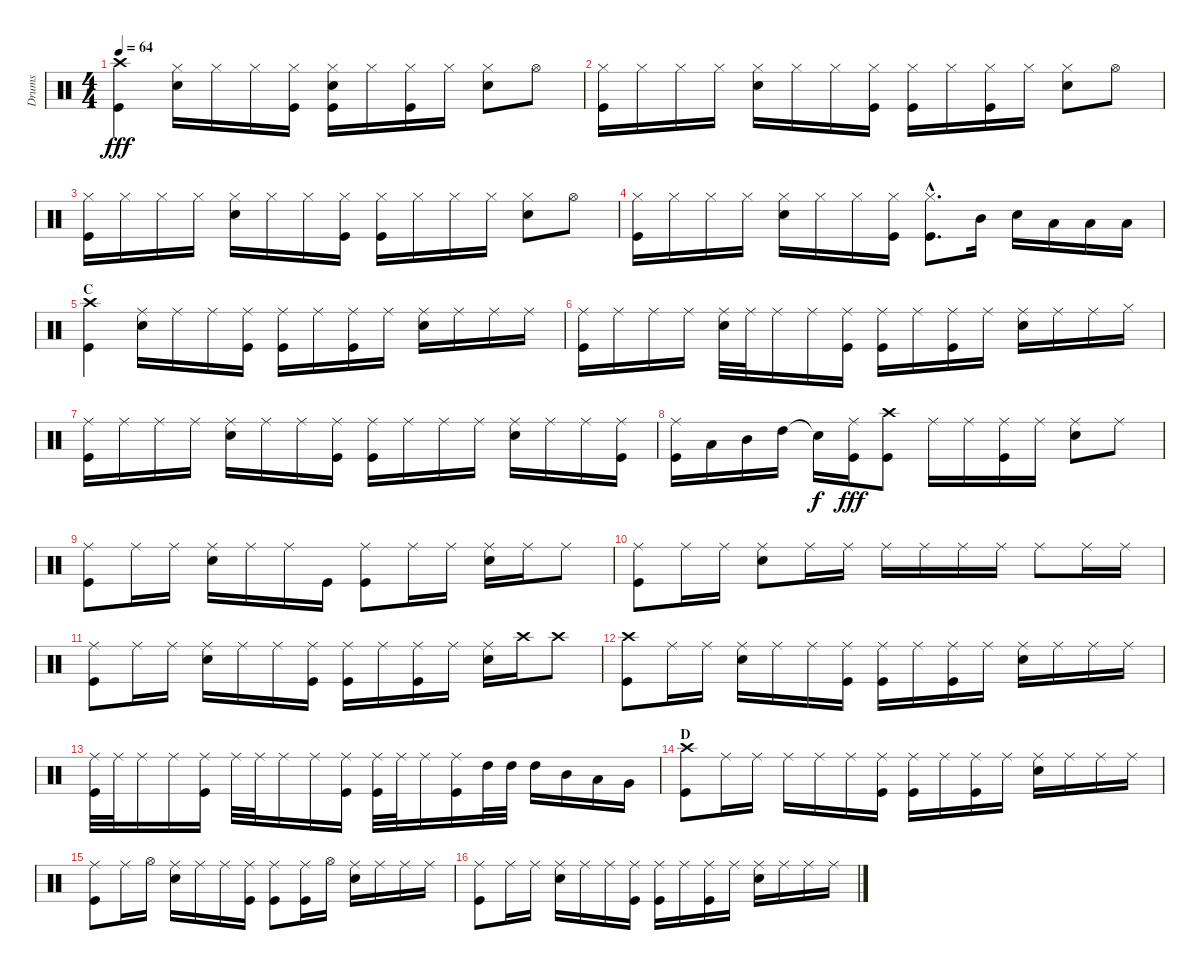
\track ("Drums" "Drums") {instrument percussion}
\staff {score}
\articulation defaults
\ts (4 4)
\tempo 64
\clef neutral
\ks c
("Crash high (hit)" "Kick (hit)").4{dy fff} ("Hi-Hat (closed)" "Snare (hit) 2").16 "Hi-Hat (closed)".16 "Hi-Hat (closed)".16 ("Hi-Hat (closed)" "Kick (hit)").16 ("Hi-Hat (closed)" "Snare (hit) 2" "Kick (hit)").16 "Hi-Hat (closed)".16 ("Hi-Hat (closed)" "Kick (hit)").16 "Hi-Hat (closed)".16 ("Hi-Hat (closed)" "Snare (hit) 2").8 "Hi-Hat (open)".8 |
("Hi-Hat (closed)" "Kick (hit)").16 "Hi-Hat (closed)".16 "Hi-Hat (closed)".16 "Hi-Hat (closed)".16 ("Hi-Hat (closed)" "Snare (hit) 2").16 "Hi-Hat (closed)".16 "Hi-Hat (closed)".16 ("Hi-Hat (closed)" "Kick (hit)").16 ("Hi-Hat (closed)" "Kick (hit)").16 "Hi-Hat (closed)".16 ("Hi-Hat (closed)" "Kick (hit)").16 "Hi-Hat (closed)".16 ("Hi-Hat (closed)" "Snare (hit) 2").8 "Hi-Hat (open)".8 |
("Hi-Hat (closed)" "Kick (hit)").16 "Hi-Hat (closed)".16 "Hi-Hat (closed)".16 "Hi-Hat (closed)".16 ("Hi-Hat (closed)" "Snare (hit) 2").16 "Hi-Hat (closed)".16 "Hi-Hat (closed)".16 ("Hi-Hat (closed)" "Kick (hit)").16 ("Hi-Hat (closed)" "Kick (hit)").16 "Hi-Hat (closed)".16 "Hi-Hat (closed)".16 "Hi-Hat (closed)".16 ("Hi-Hat (closed)" "Snare (hit) 2").8 "Hi-Hat (open)".8 |
("Hi-Hat (closed)" "Kick (hit)").16 "Hi-Hat (closed)".16 "Hi-Hat (closed)".16 "Hi-Hat (closed)".16 ("Hi-Hat (closed)" "Snare (hit) 2").16 "Hi-Hat (closed)".16 "Hi-Hat (closed)".16 ("Hi-Hat (closed)" "Kick (hit)").16 ("Hi-Hat (closed)"{hac} "Kick (hit)"{hac}).8{d} "Mid Tom (hit)".16 "Snare (hit) 2".16 "Low Tom (hit)".16 "Low Tom (hit)".16 "Low Tom (hit)".16 |
\section ("" "C")
("Crash high (hit)" "Kick (hit)").4 ("Ride (middle)" "Snare (hit) 2").16 "Ride (middle)".16 "Ride (middle)".16 ("Ride (middle)" "Kick (hit)").16 ("Ride (middle)" "Kick (hit)").16 "Ride (middle)".16 ("Ride (middle)" "Kick (hit)").16 "Ride (middle)".16 ("Ride (middle)" "Snare (hit) 2").16 "Ride (middle)".16 "Ride (middle)".16 "Ride (middle)".16 |
("Ride (middle)" "Kick (hit)").16 "Ride (middle)".16 "Ride (middle)".16 "Ride (middle)".16 ("Ride (middle)" "Snare (hit) 2").32 "Ride (middle)".32 "Ride (middle)".16 "Ride (middle)".16 ("Ride (middle)" "Kick (hit)").16 ("Ride (middle)" "Kick (hit)").16 "Ride (middle)".16 ("Ride (middle)" "Kick (hit)").16 "Ride (middle)".16 ("Ride (middle)" "Snare (hit) 2").16 "Ride (middle)".16 "Ride (middle)".16 "Hi-Hat (closed)".16 |
("Ride (middle)" "Kick (hit)").16 "Ride (middle)".16 "Ride (middle)".16 "Ride (middle)".16 ("Ride (middle)" "Snare (hit) 2").16 "Ride (middle)".16 "Ride (middle)".16 ("Ride (middle)" "Kick (hit)").16 ("Ride (middle)" "Kick (hit)").16 "Ride (middle)".16 "Ride (middle)".16 "Ride (middle)".16 ("Ride (middle)" "Snare (hit) 2").16 "Ride (middle)".16 "Ride (middle)".16 ("Ride (middle)" "Kick (hit)").16 |
("Ride (middle)" "Kick (hit)").16 "Low Tom (hit)".16 "Mid Tom (hit)".16 "High Tom (hit)".16 "Snare (hit)"{t}.16{dy f} ("Ride (middle)" "Kick (hit)").16{dy fff} ("Crash high (hit)" "Kick (hit)").8 "Ride (middle)".16 "Ride (middle)".16 ("Ride (middle)" "Kick (hit)").16 "Ride (middle)".16 ("Ride (middle)" "Snare (hit) 2").8 "Ride (middle)".8 |
("Ride (middle)" "Kick (hit)").8 "Ride (middle)".16 "Ride (middle)".16 ("Ride (middle)" "Snare (hit) 2").16 "Ride (middle)".16 "Ride (middle)".16 "Kick (hit)".16 ("Ride (middle)" "Kick (hit)").8 "Ride (middle)".16 "Ride (middle)".16 ("Ride (middle)" "Snare (hit) 2").16 "Ride (middle)".16 "Ride (middle)".8 |
("Ride (middle)" "Kick (hit)").8 "Ride (middle)".16 "Ride (middle)".16 ("Ride (middle)" "Snare (hit) 2").8 "Ride (middle)".16 "Ride (middle)".16 "Ride (middle)".16 "Ride (middle)".16 "Ride (middle)".16 "Ride (middle)".16 "Ride (middle)".8 "Ride (middle)".16 "Ride (middle)".16 |
("Ride (middle)" "Kick (hit)").8 "Ride (middle)".16 "Ride (middle)".16 ("Ride (middle)" "Snare (hit) 2").16 "Ride (middle)".16 "Ride (middle)".16 ("Ride (middle)" "Kick (hit)").16 ("Ride (middle)" "Kick (hit)").16 "Ride (middle)".16 ("Ride (middle)" "Kick (hit)").16 "Ride (middle)".16 ("Ride (middle)" "Snare (hit) 2").16 "Crash high (hit)".16 "Crash high (hit)".8 |
("Crash high (hit)" "Kick (hit)").8 "Ride (middle)".16 "Ride (middle)".16 ("Ride (middle)" "Snare (hit) 2").16 "Ride (middle)".16 "Ride (middle)".16 ("Ride (middle)" "Kick (hit)").16 ("Ride (middle)" "Kick (hit)").16 "Ride (middle)".16 ("Ride (middle)" "Kick (hit)").16 "Ride (middle)".16 ("Ride (middle)" "Snare (hit) 2").16 "Ride (middle)".16 "Ride (middle)".16 "Ride (middle)".16 |
("Ride (middle)" "Kick (hit)").32 "Ride (middle)".32 "Ride (middle)".16 "Ride (middle)".16 ("Ride (middle)" "Kick (hit)").16 "Ride (middle)".32 "Ride (middle)".32 "Ride (middle)".16 "Ride (middle)".16 ("Ride (middle)" "Kick (hit)").16 ("Ride (middle)" "Kick (hit)").32 "Ride (middle)".32 "Ride (middle)".16 ("Ride (middle)" "Kick (hit)").16 "High Tom (hit)".32 "High Tom (hit)".32 "High Tom (hit)".16 "Mid Tom (hit)".16 "Low Tom (hit)".16 "Very Low Tom (hit)".16 |
\section ("" "D")
("Crash high (hit)" "Kick (hit)").8 "Ride (middle)".16 "Ride (middle)".16 "Ride (middle)".16 "Ride (middle)".16 "Ride (middle)".16 ("Ride (middle)" "Kick (hit)").16 ("Ride (middle)" "Kick (hit)").16 "Ride (middle)".16 ("Ride (middle)" "Kick (hit)").16 "Ride (middle)".16 ("Ride (middle)" "Snare (hit) 2").16 "Ride (middle)".16 "Ride (middle)".16 "Ride (middle)".16 |
("Ride (middle)" "Kick (hit)").8 "Ride (middle)".16 "Hi-Hat (open)".16 ("Ride (middle)" "Snare (hit) 2").16 "Ride (middle)".16 "Ride (middle)".16 ("Ride (middle)" "Kick (hit)").16 ("Ride (middle)" "Kick (hit)").8 ("Ride (middle)" "Kick (hit)").16 "Hi-Hat (open)".16 ("Ride (middle)" "Snare (hit) 2").16 "Ride (middle)".16 "Ride (middle)".16 "Ride (middle)".16 |
("Ride (middle)" "Kick (hit)").8 "Ride (middle)".16 "Ride (middle)".16 ("Ride (middle)" "Snare (hit) 2").16 "Ride (middle)".16 "Ride (middle)".16 ("Ride (middle)" "Kick (hit)").16 ("Ride (middle)" "Kick (hit)").16 "Ride (middle)".16 ("Ride (middle)" "Kick (hit)").16 "Ride (middle)".16 ("Ride (middle)" "Snare (hit) 2").16 "Ride (middle)".16 "Ride (middle)".16 "Ride (middle)".16
